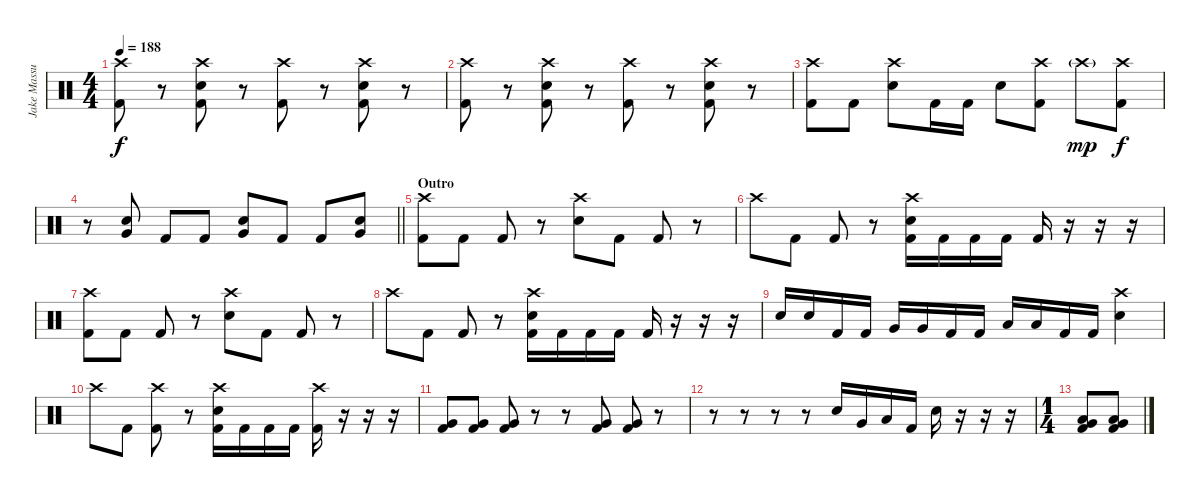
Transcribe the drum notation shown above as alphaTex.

\track ("Jake Massucco" "Jake Massu") {instrument percussion}
\staff {score}
\articulation defaults
\ts (4 4)
\tempo 188
\clef neutral
\ks c
("Crash high (hit)" "Kick (hit) 2").8{dy f} r.8 ("Crash high (hit)" "Electric Snare (hit)" "Kick (hit) 2").8 r.8 ("Crash high (hit)" "Kick (hit) 2").8 r.8 ("Crash high (hit)" "Electric Snare (hit)" "Kick (hit) 2").8 r.8 |
("Crash high (hit)" "Kick (hit) 2").8 r.8 ("Crash high (hit)" "Electric Snare (hit)" "Kick (hit) 2").8 r.8 ("Crash high (hit)" "Kick (hit) 2").8 r.8 ("Crash high (hit)" "Electric Snare (hit)" "Kick (hit) 2").8 r.8 |
("Crash high (hit)" "Kick (hit) 2").8 "Kick (hit) 2".8 ("Crash high (hit)" "Electric Snare (hit)").8 "Kick (hit) 2".16 "Kick (hit) 2".16 "Electric Snare (hit)".8 ("Crash high (hit)" "Kick (hit) 2").8 "Crash high (hit)"{g}.8{dy mp volume 0} ("Crash high (hit)" "Kick (hit) 2").8{dy f volume 16} |
\barLineRight lightlight
r.8 ("Very Low Tom (hit)" "Electric Snare (hit)").8 "Kick (hit) 2".8 "Kick (hit) 2".8 ("Very Low Tom (hit)" "Electric Snare (hit)").8 "Kick (hit) 2".8 "Kick (hit) 2".8 ("Very Low Tom (hit)" "Electric Snare (hit)").8 |
\section ("" "Outro")
("Crash high (hit)" "Kick (hit) 2").8 "Kick (hit) 2".8 "Kick (hit) 2".8 r.8 ("Crash high (hit)" "Electric Snare (hit)").8 "Kick (hit) 2".8 "Kick (hit) 2".8 r.8 |
"Crash high (hit)".8 "Kick (hit) 2".8 "Kick (hit) 2".8 r.8 ("Crash high (hit)" "Electric Snare (hit)" "Kick (hit) 2").16 "Kick (hit) 2".16 "Kick (hit) 2".16 "Kick (hit) 2".16 "Kick (hit) 2".16 r.16 r.16 r.16 |
("Crash high (hit)" "Kick (hit) 2").8 "Kick (hit) 2".8 "Kick (hit) 2".8 r.8 ("Crash high (hit)" "Electric Snare (hit)").8 "Kick (hit) 2".8 "Kick (hit) 2".8 r.8 |
"Crash high (hit)".8 "Kick (hit) 2".8 "Kick (hit) 2".8 r.8 ("Crash high (hit)" "Electric Snare (hit)" "Kick (hit) 2").16 "Kick (hit) 2".16 "Kick (hit) 2".16 "Kick (hit) 2".16 "Kick (hit) 2".16 r.16 r.16 r.16 |
"Electric Snare (hit)".16 "Electric Snare (hit)".16 "Kick (hit) 2".16 "Kick (hit) 2".16 "Very Low Tom (hit)".16 "Very Low Tom (hit)".16 "Kick (hit) 2".16 "Kick (hit) 2".16 "Low Floor Tom (hit)".16 "Low Floor Tom (hit)".16 "Kick (hit) 2".16 "Kick (hit) 2".16 ("Crash high (hit)" "Electric Snare (hit)").4 |
"Crash high (hit)".8 "Kick (hit) 2".8 ("Crash high (hit)" "Kick (hit) 2").8 r.8 ("Crash high (hit)" "Electric Snare (hit)" "Kick (hit) 2").16 "Kick (hit) 2".16 "Kick (hit) 2".16 "Kick (hit) 2".16 ("Crash high (hit)" "Kick (hit) 2").16 r.16 r.16 r.16 |
("Very Low Tom (hit)" "Kick (hit) 2").8 ("Very Low Tom (hit)" "Kick (hit) 2").8 ("Very Low Tom (hit)" "Kick (hit) 2").8 r.8 r.8 ("Very Low Tom (hit)" "Kick (hit) 2").8 ("Very Low Tom (hit)" "Kick (hit) 2").8 r.8 |
r.8 r.8 r.8 r.8 "Electric Snare (hit)".16 "Very Low Tom (hit)".16 "Low Floor Tom (hit)".16 "Kick (hit) 2".16 "Electric Snare (hit)".16 r.16 r.16 r.16 |
\ts (1 4)
("Low Floor Tom (hit)" "Very Low Tom (hit)" "Kick (hit) 2").8 ("Low Floor Tom (hit)" "Very Low Tom (hit)" "Kick (hit) 2").8
